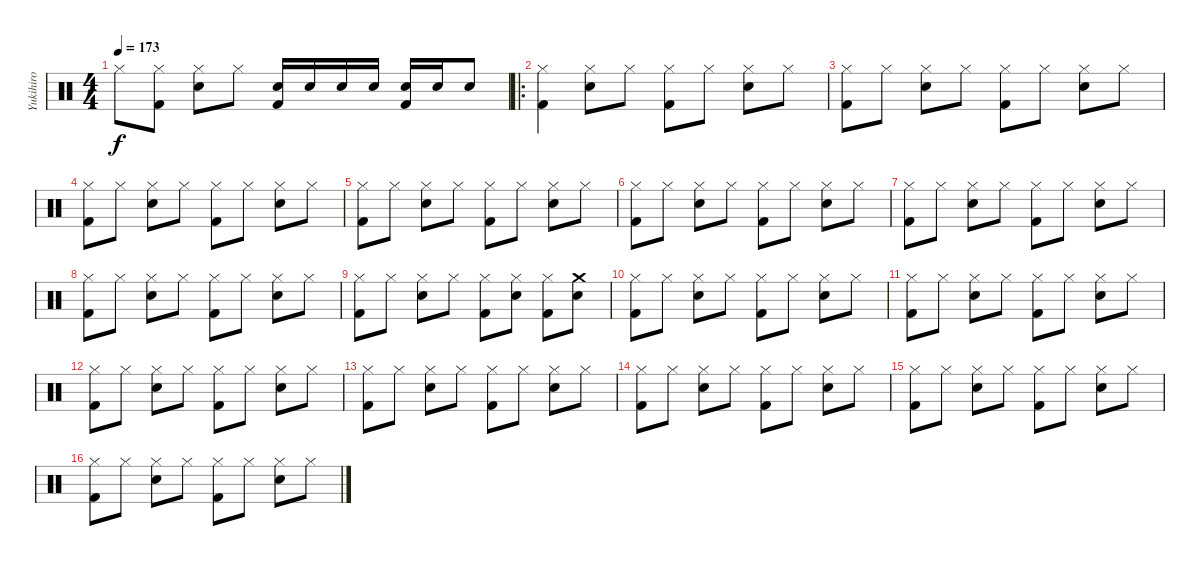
\track ("Yukihiro" "Yukihiro") {instrument percussion}
\staff {score}
\articulation defaults
\ts (4 4)
\tempo 173
\clef neutral
\ks c "Hi-Hat (closed)".8{dy f}
("Hi-Hat (closed)" "Kick (hit) 2").8 ("Hi-Hat (closed)" "Snare (hit) 2").8 "Hi-Hat (closed)".8 ("Snare (hit) 2" "Kick (hit) 2").16 "Snare (hit) 2".16 "Snare (hit) 2".16 "Snare (hit) 2".16 ("Snare (hit) 2" "Kick (hit) 2").16 "Snare (hit) 2".16 "Snare (hit) 2".8 |
\ro
("Hi-Hat (closed)" "Kick (hit) 2").4 ("Hi-Hat (closed)" "Snare (hit) 2").8 "Hi-Hat (closed)".8 ("Hi-Hat (closed)" "Kick (hit) 2").8 "Hi-Hat (closed)".8 ("Hi-Hat (closed)" "Snare (hit) 2").8 "Hi-Hat (closed)".8 |
("Hi-Hat (closed)" "Kick (hit) 2").8 "Hi-Hat (closed)".8 ("Hi-Hat (closed)" "Snare (hit) 2").8 "Hi-Hat (closed)".8 ("Hi-Hat (closed)" "Kick (hit) 2").8 "Hi-Hat (closed)".8 ("Hi-Hat (closed)" "Snare (hit) 2").8 "Hi-Hat (closed)".8 |
("Hi-Hat (closed)" "Kick (hit) 2").8 "Hi-Hat (closed)".8 ("Hi-Hat (closed)" "Snare (hit) 2").8 "Hi-Hat (closed)".8 ("Hi-Hat (closed)" "Kick (hit) 2").8 "Hi-Hat (closed)".8 ("Hi-Hat (closed)" "Snare (hit) 2").8 "Hi-Hat (closed)".8 |
("Hi-Hat (closed)" "Kick (hit) 2").8 "Hi-Hat (closed)".8 ("Hi-Hat (closed)" "Snare (hit) 2").8 "Hi-Hat (closed)".8 ("Hi-Hat (closed)" "Kick (hit) 2").8 "Hi-Hat (closed)".8 ("Hi-Hat (closed)" "Snare (hit) 2").8 "Hi-Hat (closed)".8 |
("Hi-Hat (closed)" "Kick (hit) 2").8 "Hi-Hat (closed)".8 ("Hi-Hat (closed)" "Snare (hit) 2").8 "Hi-Hat (closed)".8 ("Hi-Hat (closed)" "Kick (hit) 2").8 "Hi-Hat (closed)".8 ("Hi-Hat (closed)" "Snare (hit) 2").8 "Hi-Hat (closed)".8 |
("Hi-Hat (closed)" "Kick (hit) 2").8 "Hi-Hat (closed)".8 ("Hi-Hat (closed)" "Snare (hit) 2").8 "Hi-Hat (closed)".8 ("Hi-Hat (closed)" "Kick (hit) 2").8 "Hi-Hat (closed)".8 ("Hi-Hat (closed)" "Snare (hit) 2").8 "Hi-Hat (closed)".8 |
("Hi-Hat (closed)" "Kick (hit) 2").8 "Hi-Hat (closed)".8 ("Hi-Hat (closed)" "Snare (hit) 2").8 "Hi-Hat (closed)".8 ("Hi-Hat (closed)" "Kick (hit) 2").8 "Hi-Hat (closed)".8 ("Hi-Hat (closed)" "Snare (hit) 2").8 "Hi-Hat (closed)".8 |
("Hi-Hat (closed)" "Kick (hit) 2").8 "Hi-Hat (closed)".8 ("Hi-Hat (closed)" "Snare (hit) 2").8 "Hi-Hat (closed)".8 ("Hi-Hat (closed)" "Kick (hit) 2").8 ("Hi-Hat (closed)" "Snare (hit) 2").8 ("Hi-Hat (closed)" "Kick (hit) 2").8 ("Crash medium (hit)" "Snare (hit) 2").8 |
("Hi-Hat (closed)" "Kick (hit) 2").8 "Hi-Hat (closed)".8 ("Hi-Hat (closed)" "Snare (hit) 2").8 "Hi-Hat (closed)".8 ("Hi-Hat (closed)" "Kick (hit) 2").8 "Hi-Hat (closed)".8 ("Hi-Hat (closed)" "Snare (hit) 2").8 "Hi-Hat (closed)".8 |
("Hi-Hat (closed)" "Kick (hit) 2").8 "Hi-Hat (closed)".8 ("Hi-Hat (closed)" "Snare (hit) 2").8 "Hi-Hat (closed)".8 ("Hi-Hat (closed)" "Kick (hit) 2").8 "Hi-Hat (closed)".8 ("Hi-Hat (closed)" "Snare (hit) 2").8 "Hi-Hat (closed)".8 |
("Hi-Hat (closed)" "Kick (hit) 2").8 "Hi-Hat (closed)".8 ("Hi-Hat (closed)" "Snare (hit) 2").8 "Hi-Hat (closed)".8 ("Hi-Hat (closed)" "Kick (hit) 2").8 "Hi-Hat (closed)".8 ("Hi-Hat (closed)" "Snare (hit) 2").8 "Hi-Hat (closed)".8 |
("Hi-Hat (closed)" "Kick (hit) 2").8 "Hi-Hat (closed)".8 ("Hi-Hat (closed)" "Snare (hit) 2").8 "Hi-Hat (closed)".8 ("Hi-Hat (closed)" "Kick (hit) 2").8 "Hi-Hat (closed)".8 ("Hi-Hat (closed)" "Snare (hit) 2").8 "Hi-Hat (closed)".8 |
("Hi-Hat (closed)" "Kick (hit) 2").8 "Hi-Hat (closed)".8 ("Hi-Hat (closed)" "Snare (hit) 2").8 "Hi-Hat (closed)".8 ("Hi-Hat (closed)" "Kick (hit) 2").8 "Hi-Hat (closed)".8 ("Hi-Hat (closed)" "Snare (hit) 2").8 "Hi-Hat (closed)".8 |
("Hi-Hat (closed)" "Kick (hit) 2").8 "Hi-Hat (closed)".8 ("Hi-Hat (closed)" "Snare (hit) 2").8 "Hi-Hat (closed)".8 ("Hi-Hat (closed)" "Kick (hit) 2").8 "Hi-Hat (closed)".8 ("Hi-Hat (closed)" "Snare (hit) 2").8 "Hi-Hat (closed)".8 |
("Hi-Hat (closed)" "Kick (hit) 2").8 "Hi-Hat (closed)".8 ("Hi-Hat (closed)" "Snare (hit) 2").8 "Hi-Hat (closed)".8 ("Hi-Hat (closed)" "Kick (hit) 2").8 "Hi-Hat (closed)".8 ("Hi-Hat (closed)" "Snare (hit) 2").8 "Hi-Hat (closed)".8
